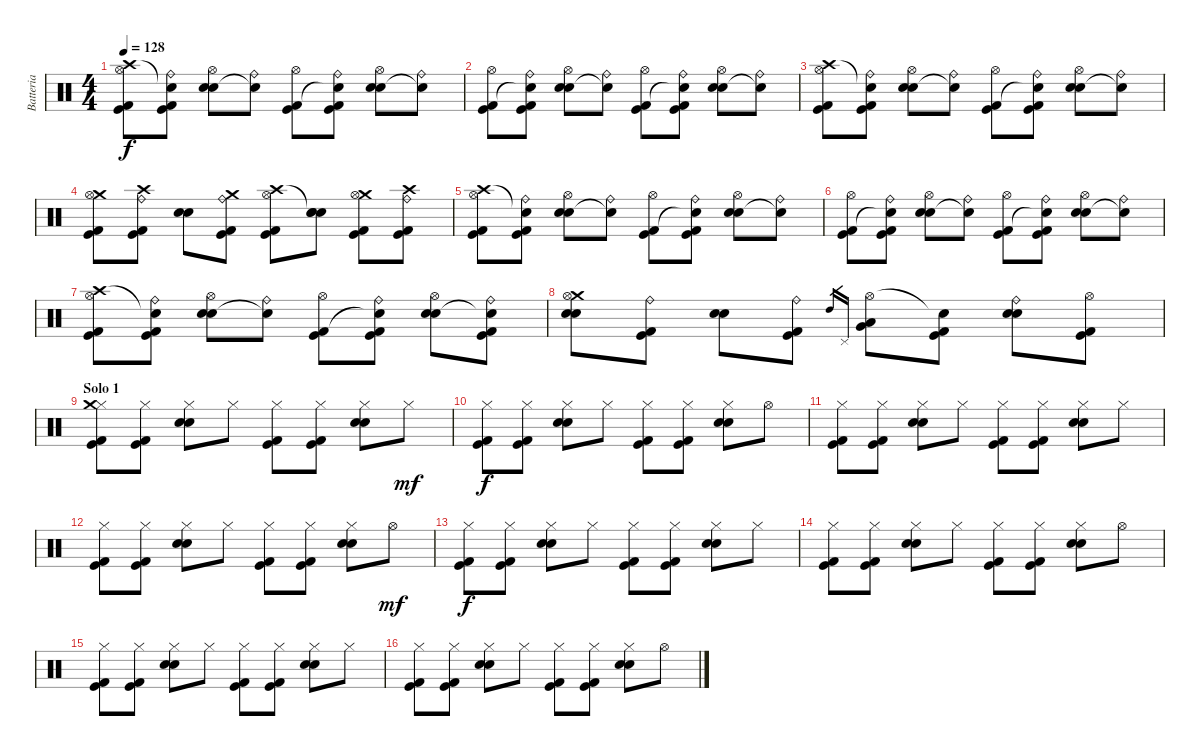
\track ("Batteria" "Batteria") {instrument percussion}
\staff {score}
\articulation defaults
\ts (4 4)
\tempo 128
\clef neutral
\ks c
("Hi-Hat (open)" "Crash high (hit)" "Kick (hit) 2" "Kick (hit)").8{dy f} ("Ride (bell)" "Snare (hit)"{t} "Kick (hit) 2" "Kick (hit)").8 ("Hi-Hat (open)" "Electric Snare (hit)" "Electric Snare (hit)").8 ("Ride (bell)" "Snare (hit)"{t}).8 ("Hi-Hat (open)" "Kick (hit) 2" "Kick (hit)").8 ("Ride (bell)" "Snare (hit)"{t} "Kick (hit) 2" "Kick (hit)").8 ("Hi-Hat (open)" "Electric Snare (hit)" "Electric Snare (hit)").8 ("Ride (bell)" "Snare (hit)"{t}).8 |
("Hi-Hat (open)" "Kick (hit) 2" "Kick (hit)").8 ("Ride (bell)" "Snare (hit)"{t} "Kick (hit) 2" "Kick (hit)").8 ("Hi-Hat (open)" "Electric Snare (hit)" "Electric Snare (hit)").8 ("Ride (bell)" "Snare (hit)"{t}).8 ("Hi-Hat (open)" "Kick (hit) 2" "Kick (hit)").8 ("Ride (bell)" "Snare (hit)"{t} "Kick (hit) 2" "Kick (hit)").8 ("Hi-Hat (open)" "Electric Snare (hit)" "Electric Snare (hit)").8 ("Ride (bell)" "Snare (hit)"{t}).8 |
("Hi-Hat (open)" "Crash high (hit)" "Kick (hit) 2" "Kick (hit)").8 ("Ride (bell)" "Snare (hit)"{t} "Kick (hit) 2" "Kick (hit)").8 ("Hi-Hat (open)" "Electric Snare (hit)" "Electric Snare (hit)").8 ("Ride (bell)" "Snare (hit)"{t}).8 ("Hi-Hat (open)" "Kick (hit) 2" "Kick (hit)").8 ("Ride (bell)" "Snare (hit)"{t} "Kick (hit) 2" "Kick (hit)").8 ("Hi-Hat (open)" "Electric Snare (hit)" "Electric Snare (hit)").8 ("Ride (bell)" "Snare (hit)"{t}).8 |
("Crash medium (hit)" "Hi-Hat (open)" "Kick (hit) 2" "Kick (hit)").8 ("Ride (bell)" "Crash high (hit)" "Kick (hit) 2" "Kick (hit)").8 ("Electric Snare (hit)" "Electric Snare (hit)").8 ("Ride (bell)" "Crash medium (hit)" "Kick (hit) 2" "Kick (hit)").8 ("Crash high (hit)" "Hi-Hat (open)" "Kick (hit) 2" "Kick (hit)").8 ("Snare (hit)"{t} "Electric Snare (hit)" "Electric Snare (hit)").8 ("Crash medium (hit)" "Hi-Hat (open)" "Kick (hit) 2" "Kick (hit)").8 ("Ride (bell)" "Crash high (hit)" "Kick (hit) 2" "Kick (hit)").8 |
("Hi-Hat (open)" "Crash high (hit)" "Kick (hit) 2" "Kick (hit)").8 ("Ride (bell)" "Snare (hit)"{t} "Kick (hit) 2" "Kick (hit)").8 ("Hi-Hat (open)" "Electric Snare (hit)" "Electric Snare (hit)").8 ("Ride (bell)" "Snare (hit)"{t}).8 ("Hi-Hat (open)" "Kick (hit) 2" "Kick (hit)").8 ("Ride (bell)" "Snare (hit)"{t} "Kick (hit) 2" "Kick (hit)").8 ("Hi-Hat (open)" "Electric Snare (hit)" "Electric Snare (hit)").8 ("Ride (bell)" "Snare (hit)"{t}).8 |
("Hi-Hat (open)" "Kick (hit) 2" "Kick (hit)").8 ("Ride (bell)" "Snare (hit)"{t} "Kick (hit) 2" "Kick (hit)").8 ("Hi-Hat (open)" "Electric Snare (hit)" "Electric Snare (hit)").8 ("Ride (bell)" "Snare (hit)"{t}).8 ("Hi-Hat (open)" "Kick (hit) 2" "Kick (hit)").8 ("Ride (bell)" "Snare (hit)"{t} "Kick (hit) 2" "Kick (hit)").8 ("Hi-Hat (open)" "Electric Snare (hit)" "Electric Snare (hit)").8 ("Ride (bell)" "Snare (hit)"{t}).8 |
("Hi-Hat (open)" "Crash high (hit)" "Kick (hit) 2" "Kick (hit)").8 ("Ride (bell)" "Snare (hit)"{t} "Kick (hit) 2" "Kick (hit)").8 ("Hi-Hat (open)" "Electric Snare (hit)" "Electric Snare (hit)").8 ("Ride (bell)" "Snare (hit)"{t}).8 ("Hi-Hat (open)" "Kick (hit) 2" "Kick (hit)").8 ("Ride (bell)" "Snare (hit)"{t} "Kick (hit) 2" "Kick (hit)").8 ("Hi-Hat (open)" "Electric Snare (hit)" "Electric Snare (hit)").8 ("Ride (bell)" "Snare (hit)"{t} "Kick (hit) 2" "Kick (hit)").8 |
("Crash medium (hit)" "Hi-Hat (open)" "Electric Snare (hit)" "Electric Snare (hit)").8 ("Ride (bell)" "Kick (hit) 2" "Kick (hit)").8 ("Electric Snare (hit)" "Electric Snare (hit)").8 ("Ride (bell)" "Kick (hit) 2" "Kick (hit)").8 "High Tom (hit)".16{gr} "Pedal Hi-Hat (hit)".16{gr} ("Hi-Hat (open)" "Very Low Tom (hit)" "Low Floor Tom (hit)").8 ("Snare (hit)"{t} "Kick (hit) 2" "Kick (hit)").8 ("Ride (bell)" "Electric Snare (hit)" "Electric Snare (hit)").8 ("Hi-Hat (open)" "Kick (hit) 2" "Kick (hit)").8 |
\section ("" "Solo 1")
("Hi-Hat (closed)" "Crash medium (hit)" "Kick (hit) 2" "Kick (hit)").8 ("Hi-Hat (closed)" "Kick (hit) 2" "Kick (hit)").8 ("Hi-Hat (closed)" "Electric Snare (hit)" "Electric Snare (hit)").8 "Hi-Hat (closed)".8 ("Hi-Hat (closed)" "Kick (hit) 2" "Kick (hit)").8 ("Hi-Hat (closed)" "Kick (hit) 2" "Kick (hit)").8 ("Hi-Hat (closed)" "Electric Snare (hit)" "Electric Snare (hit)").8 "Hi-Hat (closed)".8{dy mf} |
("Hi-Hat (closed)" "Kick (hit) 2" "Kick (hit)").8{dy f} ("Hi-Hat (closed)" "Kick (hit) 2" "Kick (hit)").8 ("Hi-Hat (closed)" "Electric Snare (hit)" "Electric Snare (hit)").8 "Hi-Hat (closed)".8 ("Hi-Hat (closed)" "Kick (hit) 2" "Kick (hit)").8 ("Hi-Hat (closed)" "Kick (hit) 2" "Kick (hit)").8 ("Hi-Hat (closed)" "Electric Snare (hit)" "Electric Snare (hit)").8 "Hi-Hat (open)".8 |
("Hi-Hat (closed)" "Kick (hit) 2" "Kick (hit)").8 ("Hi-Hat (closed)" "Kick (hit) 2" "Kick (hit)").8 ("Hi-Hat (closed)" "Electric Snare (hit)" "Electric Snare (hit)").8 "Hi-Hat (closed)".8 ("Hi-Hat (closed)" "Kick (hit) 2" "Kick (hit)").8 ("Hi-Hat (closed)" "Kick (hit) 2" "Kick (hit)").8 ("Hi-Hat (closed)" "Electric Snare (hit)" "Electric Snare (hit)").8 "Hi-Hat (closed)".8 |
("Hi-Hat (closed)" "Kick (hit) 2" "Kick (hit)").8 ("Hi-Hat (closed)" "Kick (hit) 2" "Kick (hit)").8 ("Hi-Hat (closed)" "Electric Snare (hit)" "Electric Snare (hit)").8 "Hi-Hat (closed)".8 ("Hi-Hat (closed)" "Kick (hit) 2" "Kick (hit)").8 ("Hi-Hat (closed)" "Kick (hit) 2" "Kick (hit)").8 ("Hi-Hat (closed)" "Electric Snare (hit)" "Electric Snare (hit)").8 "Hi-Hat (open)".8{dy mf} |
("Hi-Hat (closed)" "Kick (hit) 2" "Kick (hit)").8{dy f} ("Hi-Hat (closed)" "Kick (hit) 2" "Kick (hit)").8 ("Hi-Hat (closed)" "Electric Snare (hit)" "Electric Snare (hit)").8 "Hi-Hat (closed)".8 ("Hi-Hat (closed)" "Kick (hit) 2" "Kick (hit)").8 ("Hi-Hat (closed)" "Kick (hit) 2" "Kick (hit)").8 ("Hi-Hat (closed)" "Electric Snare (hit)" "Electric Snare (hit)").8 "Hi-Hat (closed)".8 |
("Hi-Hat (closed)" "Kick (hit) 2" "Kick (hit)").8 ("Hi-Hat (closed)" "Kick (hit) 2" "Kick (hit)").8 ("Hi-Hat (closed)" "Electric Snare (hit)" "Electric Snare (hit)").8 "Hi-Hat (closed)".8 ("Hi-Hat (closed)" "Kick (hit) 2" "Kick (hit)").8 ("Hi-Hat (closed)" "Kick (hit) 2" "Kick (hit)").8 ("Hi-Hat (closed)" "Electric Snare (hit)" "Electric Snare (hit)").8 "Hi-Hat (open)".8 |
("Hi-Hat (closed)" "Kick (hit) 2" "Kick (hit)").8 ("Hi-Hat (closed)" "Kick (hit) 2" "Kick (hit)").8 ("Hi-Hat (closed)" "Electric Snare (hit)" "Electric Snare (hit)").8 "Hi-Hat (closed)".8 ("Hi-Hat (closed)" "Kick (hit) 2" "Kick (hit)").8 ("Hi-Hat (closed)" "Kick (hit) 2" "Kick (hit)").8 ("Hi-Hat (closed)" "Electric Snare (hit)" "Electric Snare (hit)").8 "Hi-Hat (closed)".8 |
("Hi-Hat (closed)" "Kick (hit) 2" "Kick (hit)").8 ("Hi-Hat (closed)" "Kick (hit) 2" "Kick (hit)").8 ("Hi-Hat (closed)" "Electric Snare (hit)" "Electric Snare (hit)").8 "Hi-Hat (closed)".8 ("Hi-Hat (closed)" "Kick (hit) 2" "Kick (hit)").8 ("Hi-Hat (closed)" "Kick (hit) 2" "Kick (hit)").8 ("Hi-Hat (closed)" "Electric Snare (hit)" "Electric Snare (hit)").8 "Hi-Hat (open)".8
